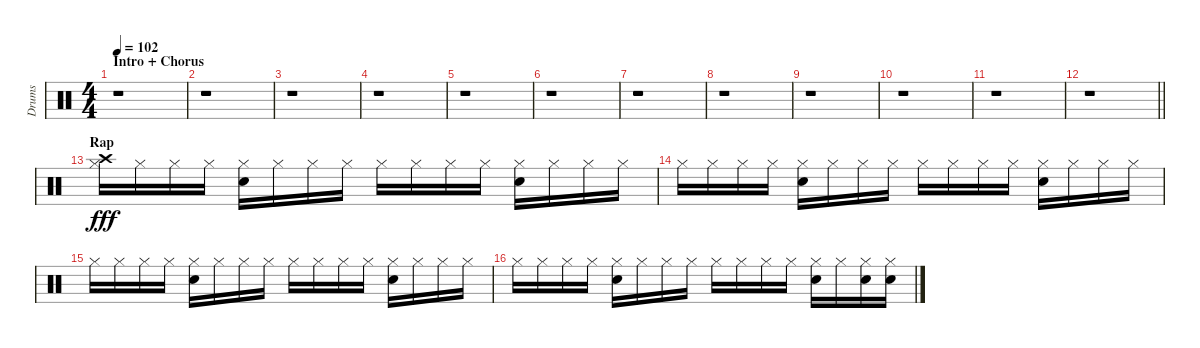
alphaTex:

\track ("Drums" "Drums") {instrument percussion}
\staff {score}
\articulation defaults
\ts (4 4)
\section ("" "Intro + Chorus")
\tempo 102
\clef neutral
\ks c
r.1{dy fff} |
r.1 |
r.1 |
r.1 |
r.1 |
r.1 |
r.1 |
r.1 |
r.1 |
r.1 |
r.1 |
\barLineRight lightlight
r.1 |
\section ("" "Rap")
("Hi-Hat (closed)" "Crash high (hit)").16 "Hi-Hat (closed)".16 "Hi-Hat (closed)".16 "Hi-Hat (closed)".16 ("Hi-Hat (closed)" "Hand Clap (hit)").16 "Hi-Hat (closed)".16 "Hi-Hat (closed)".16 "Hi-Hat (closed)".16 "Hi-Hat (closed)".16 "Hi-Hat (closed)".16 "Hi-Hat (closed)".16 "Hi-Hat (closed)".16 ("Hi-Hat (closed)" "Hand Clap (hit)").16 "Hi-Hat (closed)".16 "Hi-Hat (closed)".16 "Hi-Hat (closed)".16 |
"Hi-Hat (closed)".16 "Hi-Hat (closed)".16 "Hi-Hat (closed)".16 "Hi-Hat (closed)".16 ("Hi-Hat (closed)" "Hand Clap (hit)").16 "Hi-Hat (closed)".16 "Hi-Hat (closed)".16 "Hi-Hat (closed)".16 "Hi-Hat (closed)".16 "Hi-Hat (closed)".16 "Hi-Hat (closed)".16 "Hi-Hat (closed)".16 ("Hi-Hat (closed)" "Hand Clap (hit)").16 "Hi-Hat (closed)".16 "Hi-Hat (closed)".16 "Hi-Hat (closed)".16 |
"Hi-Hat (closed)".16 "Hi-Hat (closed)".16 "Hi-Hat (closed)".16 "Hi-Hat (closed)".16 ("Hi-Hat (closed)" "Hand Clap (hit)").16 "Hi-Hat (closed)".16 "Hi-Hat (closed)".16 "Hi-Hat (closed)".16 "Hi-Hat (closed)".16 "Hi-Hat (closed)".16 "Hi-Hat (closed)".16 "Hi-Hat (closed)".16 ("Hi-Hat (closed)" "Hand Clap (hit)").16 "Hi-Hat (closed)".16 "Hi-Hat (closed)".16 "Hi-Hat (closed)".16 |
"Hi-Hat (closed)".16 "Hi-Hat (closed)".16 "Hi-Hat (closed)".16 "Hi-Hat (closed)".16 ("Hi-Hat (closed)" "Hand Clap (hit)").16 "Hi-Hat (closed)".16 "Hi-Hat (closed)".16 "Hi-Hat (closed)".16 "Hi-Hat (closed)".16 "Hi-Hat (closed)".16 "Hi-Hat (closed)".16 "Hi-Hat (closed)".16 ("Hi-Hat (closed)" "Hand Clap (hit)").16 "Hi-Hat (closed)".16 ("Hi-Hat (closed)" "Hand Clap (hit)").16 ("Hi-Hat (closed)" "Hand Clap (hit)").16
